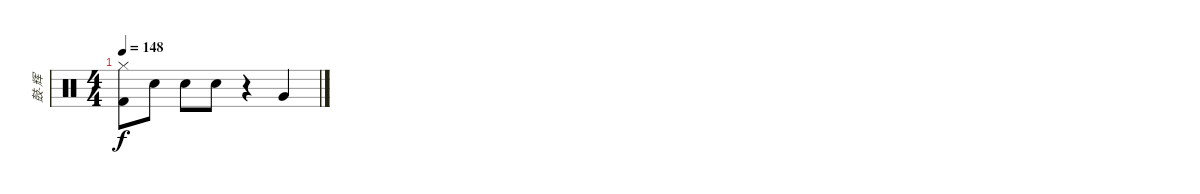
\track ("鼓-辉" "鼓-辉") {instrument percussion}
\staff {score}
\articulation defaults
\ts (4 4)
\tempo 148
\clef neutral
\ks c
("Hi-Hat (closed)"{t} "Kick (hit) 2"{t}).8{dy f} "Snare (hit) 2".8 "Snare (hit) 2".8 "Snare (hit) 2".8 r.4 "Very Low Tom (hit)".4
